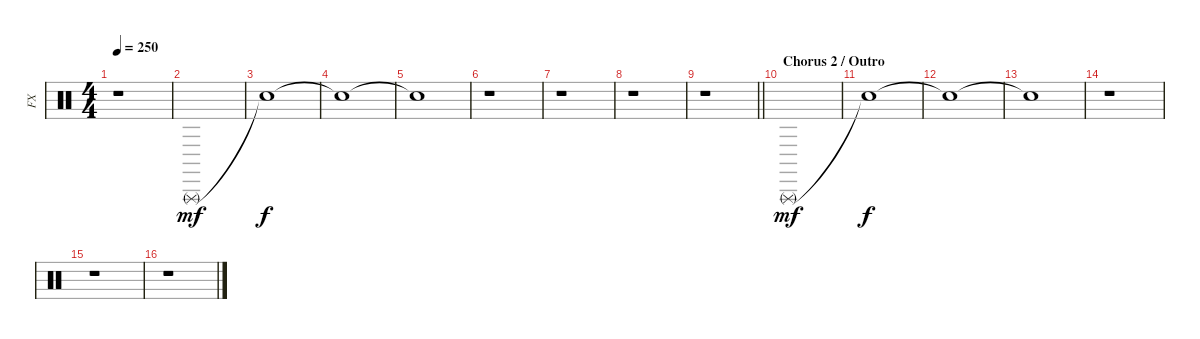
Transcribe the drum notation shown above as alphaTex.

\track ("FX" "FX") {instrument percussion}
\staff {score}
\articulation defaults
\ts (4 4)
\tempo 250
\clef neutral
\ks c
r.1{dy f} |
"Triangle (rnute)".1{dy mf} |
"Snare (hit)"{t}.1{dy f} |
"Snare (hit)"{t}.1 |
"Snare (hit)"{t}.1 |
r.1 |
r.1 |
r.1 |
\barLineRight lightlight
r.1 |
\section ("" "Chorus 2 / Outro")
"Triangle (rnute)".1{dy mf} |
"Snare (hit)"{t}.1{dy f} |
"Snare (hit)"{t}.1 |
"Snare (hit)"{t}.1 |
r.1 |
r.1 |
r.1
